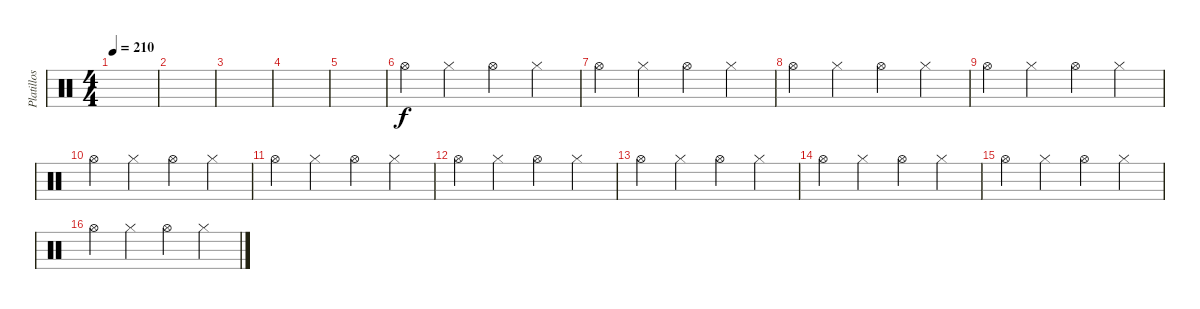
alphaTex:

\track ("Platillos (Leo)" "Platillos ") {instrument percussion}
\staff {score}
\articulation defaults
\ts (4 4)
\tempo 210
\clef neutral
\ks c
|
|
|
|
|
"Hi-Hat (open)".4 "Hi-Hat (closed)".4 "Hi-Hat (open)".4 "Hi-Hat (closed)".4 |
"Hi-Hat (open)".4 "Hi-Hat (closed)".4 "Hi-Hat (open)".4 "Hi-Hat (closed)".4 |
"Hi-Hat (open)".4 "Hi-Hat (closed)".4 "Hi-Hat (open)".4 "Hi-Hat (closed)".4 |
"Hi-Hat (open)".4 "Hi-Hat (closed)".4 "Hi-Hat (open)".4 "Hi-Hat (closed)".4 |
"Hi-Hat (open)".4 "Hi-Hat (closed)".4 "Hi-Hat (open)".4 "Hi-Hat (closed)".4 |
"Hi-Hat (open)".4 "Hi-Hat (closed)".4 "Hi-Hat (open)".4 "Hi-Hat (closed)".4 |
"Hi-Hat (open)".4 "Hi-Hat (closed)".4 "Hi-Hat (open)".4 "Hi-Hat (closed)".4 |
"Hi-Hat (open)".4 "Hi-Hat (closed)".4 "Hi-Hat (open)".4 "Hi-Hat (closed)".4 |
"Hi-Hat (open)".4 "Hi-Hat (closed)".4 "Hi-Hat (open)".4 "Hi-Hat (closed)".4 |
"Hi-Hat (open)".4 "Hi-Hat (closed)".4 "Hi-Hat (open)".4 "Hi-Hat (closed)".4 |
"Hi-Hat (open)".4 "Hi-Hat (closed)".4 "Hi-Hat (open)".4 "Hi-Hat (closed)".4
